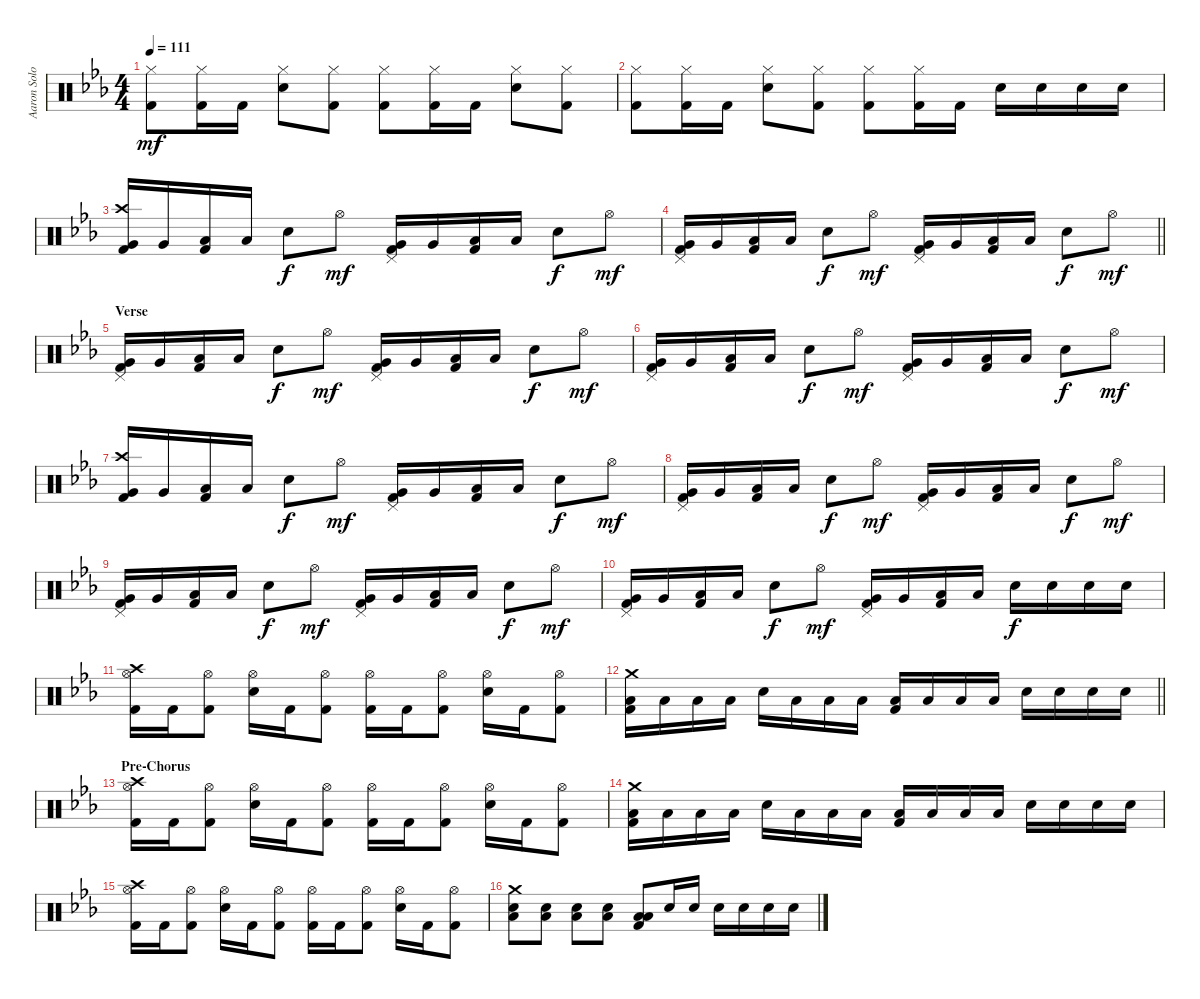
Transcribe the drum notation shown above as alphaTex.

\track ("Aaron Solowoniuk (Drums)" "Aaron Solo") {instrument percussion}
\staff {score}
\articulation defaults
\ts (4 4)
\tempo 111
\clef neutral
\ks cminor
("Hi-Hat (closed)" "Kick (hit) 2").8{dy mf} ("Hi-Hat (closed)" "Kick (hit) 2").16 "Kick (hit) 2".16 ("Hi-Hat (closed)" "Snare (hit) 2").8 ("Hi-Hat (closed)" "Kick (hit) 2").8 ("Hi-Hat (closed)" "Kick (hit) 2").8 ("Hi-Hat (closed)" "Kick (hit) 2").16 "Kick (hit) 2".16 ("Hi-Hat (closed)" "Snare (hit) 2").8 ("Hi-Hat (closed)" "Kick (hit) 2").8 |
("Hi-Hat (closed)" "Kick (hit) 2").8 ("Hi-Hat (closed)" "Kick (hit) 2").16 "Kick (hit) 2".16 ("Hi-Hat (closed)" "Snare (hit) 2").8 ("Hi-Hat (closed)" "Kick (hit) 2").8 ("Hi-Hat (closed)" "Kick (hit) 2").8 ("Hi-Hat (closed)" "Kick (hit) 2").16 "Kick (hit) 2".16 "Snare (hit) 2".16 "Snare (hit) 2".16 "Snare (hit) 2".16 "Snare (hit) 2".16 |
("Crash high (hit)" "Very Low Tom (hit)" "Kick (hit) 2").16 "Very Low Tom (hit)".16 ("Low Floor Tom (hit)" "Kick (hit) 2").16 "Low Floor Tom (hit)".16 "Snare (hit) 2".8{dy f} "Hi-Hat (open)".8{dy mf} ("Pedal Hi-Hat (hit)" "Very Low Tom (hit)" "Kick (hit) 2").16 "Very Low Tom (hit)".16 ("Low Floor Tom (hit)" "Kick (hit) 2").16 "Low Floor Tom (hit)".16 "Snare (hit) 2".8{dy f} "Hi-Hat (open)".8{dy mf} |
\barLineRight lightlight
("Pedal Hi-Hat (hit)" "Very Low Tom (hit)" "Kick (hit) 2").16 "Very Low Tom (hit)".16 ("Low Floor Tom (hit)" "Kick (hit) 2").16 "Low Floor Tom (hit)".16 "Snare (hit) 2".8{dy f} "Hi-Hat (open)".8{dy mf} ("Pedal Hi-Hat (hit)" "Very Low Tom (hit)" "Kick (hit) 2").16 "Very Low Tom (hit)".16 ("Low Floor Tom (hit)" "Kick (hit) 2").16 "Low Floor Tom (hit)".16 "Snare (hit) 2".8{dy f} "Hi-Hat (open)".8{dy mf} |
\section ("" "Verse ")
("Pedal Hi-Hat (hit)" "Very Low Tom (hit)" "Kick (hit) 2").16 "Very Low Tom (hit)".16 ("Low Floor Tom (hit)" "Kick (hit) 2").16 "Low Floor Tom (hit)".16 "Snare (hit) 2".8{dy f} "Hi-Hat (open)".8{dy mf} ("Pedal Hi-Hat (hit)" "Very Low Tom (hit)" "Kick (hit) 2").16 "Very Low Tom (hit)".16 ("Low Floor Tom (hit)" "Kick (hit) 2").16 "Low Floor Tom (hit)".16 "Snare (hit) 2".8{dy f} "Hi-Hat (open)".8{dy mf} |
("Pedal Hi-Hat (hit)" "Very Low Tom (hit)" "Kick (hit) 2").16 "Very Low Tom (hit)".16 ("Low Floor Tom (hit)" "Kick (hit) 2").16 "Low Floor Tom (hit)".16 "Snare (hit) 2".8{dy f} "Hi-Hat (open)".8{dy mf} ("Pedal Hi-Hat (hit)" "Very Low Tom (hit)" "Kick (hit) 2").16 "Very Low Tom (hit)".16 ("Low Floor Tom (hit)" "Kick (hit) 2").16 "Low Floor Tom (hit)".16 "Snare (hit) 2".8{dy f} "Hi-Hat (open)".8{dy mf} |
("Crash high (hit)" "Very Low Tom (hit)" "Kick (hit) 2").16 "Very Low Tom (hit)".16 ("Low Floor Tom (hit)" "Kick (hit) 2").16 "Low Floor Tom (hit)".16 "Snare (hit) 2".8{dy f} "Hi-Hat (open)".8{dy mf} ("Pedal Hi-Hat (hit)" "Very Low Tom (hit)" "Kick (hit) 2").16 "Very Low Tom (hit)".16 ("Low Floor Tom (hit)" "Kick (hit) 2").16 "Low Floor Tom (hit)".16 "Snare (hit) 2".8{dy f} "Hi-Hat (open)".8{dy mf} |
("Pedal Hi-Hat (hit)" "Very Low Tom (hit)" "Kick (hit) 2").16 "Very Low Tom (hit)".16 ("Low Floor Tom (hit)" "Kick (hit) 2").16 "Low Floor Tom (hit)".16 "Snare (hit) 2".8{dy f} "Hi-Hat (open)".8{dy mf} ("Pedal Hi-Hat (hit)" "Very Low Tom (hit)" "Kick (hit) 2").16 "Very Low Tom (hit)".16 ("Low Floor Tom (hit)" "Kick (hit) 2").16 "Low Floor Tom (hit)".16 "Snare (hit) 2".8{dy f} "Hi-Hat (open)".8{dy mf} |
("Pedal Hi-Hat (hit)" "Very Low Tom (hit)" "Kick (hit) 2").16 "Very Low Tom (hit)".16 ("Low Floor Tom (hit)" "Kick (hit) 2").16 "Low Floor Tom (hit)".16 "Snare (hit) 2".8{dy f} "Hi-Hat (open)".8{dy mf} ("Pedal Hi-Hat (hit)" "Very Low Tom (hit)" "Kick (hit) 2").16 "Very Low Tom (hit)".16 ("Low Floor Tom (hit)" "Kick (hit) 2").16 "Low Floor Tom (hit)".16 "Snare (hit) 2".8{dy f} "Hi-Hat (open)".8{dy mf} |
("Pedal Hi-Hat (hit)" "Very Low Tom (hit)" "Kick (hit) 2").16 "Very Low Tom (hit)".16 ("Low Floor Tom (hit)" "Kick (hit) 2").16 "Low Floor Tom (hit)".16 "Snare (hit) 2".8{dy f} "Hi-Hat (open)".8{dy mf} ("Pedal Hi-Hat (hit)" "Very Low Tom (hit)" "Kick (hit) 2").16 "Very Low Tom (hit)".16 ("Low Floor Tom (hit)" "Kick (hit) 2").16 "Low Floor Tom (hit)".16 "Snare (hit) 2".16{dy f} "Snare (hit) 2".16 "Snare (hit) 2".16 "Snare (hit) 2".16 |
("Crash high (hit)" "Hi-Hat (open)" "Kick (hit) 2").16 "Kick (hit) 2".16 ("Hi-Hat (open)" "Kick (hit) 2").8 ("Hi-Hat (open)" "Snare (hit) 2").16 "Kick (hit) 2".16 ("Hi-Hat (open)" "Kick (hit) 2").8 ("Hi-Hat (open)" "Kick (hit) 2").16 "Kick (hit) 2".16 ("Hi-Hat (open)" "Kick (hit) 2").8 ("Hi-Hat (open)" "Snare (hit) 2").16 "Kick (hit) 2".16 ("Hi-Hat (open)" "Kick (hit) 2").8 |
\barLineRight lightlight
("Crash medium (hit)" "Low Floor Tom (hit)" "Kick (hit) 2").16 "Low Floor Tom (hit)".16 "Low Floor Tom (hit)".16 "Low Tom (hit)".16 "Snare (hit) 2".16 "Low Floor Tom (hit)".16 "Low Floor Tom (hit)".16 "Low Floor Tom (hit)".16 ("Low Tom (hit)" "Kick (hit) 2").16 "Low Floor Tom (hit)".16 "Low Floor Tom (hit)".16 "Low Floor Tom (hit)".16 "Snare (hit) 2".16 "Snare (hit) 2".16 "Snare (hit) 2".16 "Snare (hit) 2".16 |
\section ("" "Pre-Chorus ")
("Crash high (hit)" "Hi-Hat (open)" "Kick (hit) 2").16 "Kick (hit) 2".16 ("Hi-Hat (open)" "Kick (hit) 2").8 ("Hi-Hat (open)" "Snare (hit) 2").16 "Kick (hit) 2".16 ("Hi-Hat (open)" "Kick (hit) 2").8 ("Hi-Hat (open)" "Kick (hit) 2").16 "Kick (hit) 2".16 ("Hi-Hat (open)" "Kick (hit) 2").8 ("Hi-Hat (open)" "Snare (hit) 2").16 "Kick (hit) 2".16 ("Hi-Hat (open)" "Kick (hit) 2").8 |
("Crash medium (hit)" "Low Floor Tom (hit)" "Kick (hit) 2").16 "Low Floor Tom (hit)".16 "Low Floor Tom (hit)".16 "Low Tom (hit)".16 "Snare (hit) 2".16 "Low Floor Tom (hit)".16 "Low Floor Tom (hit)".16 "Low Floor Tom (hit)".16 ("Low Tom (hit)" "Kick (hit) 2").16 "Low Floor Tom (hit)".16 "Low Floor Tom (hit)".16 "Low Floor Tom (hit)".16 "Snare (hit) 2".16 "Snare (hit) 2".16 "Snare (hit) 2".16 "Snare (hit) 2".16 |
("Crash high (hit)" "Hi-Hat (open)" "Kick (hit) 2").16 "Kick (hit) 2".16 ("Hi-Hat (open)" "Kick (hit) 2").8 ("Hi-Hat (open)" "Snare (hit) 2").16 "Kick (hit) 2".16 ("Hi-Hat (open)" "Kick (hit) 2").8 ("Hi-Hat (open)" "Kick (hit) 2").16 "Kick (hit) 2".16 ("Hi-Hat (open)" "Kick (hit) 2").8 ("Hi-Hat (open)" "Snare (hit) 2").16 "Kick (hit) 2".16 ("Hi-Hat (open)" "Kick (hit) 2").8 |
("Crash medium (hit)" "Low Floor Tom (hit)" "Snare (hit) 2").8 ("Low Floor Tom (hit)" "Snare (hit) 2").8 ("Low Floor Tom (hit)" "Snare (hit) 2").8 ("Low Floor Tom (hit)" "Snare (hit) 2").8 ("Low Floor Tom (hit)" "Low Tom (hit)" "Kick (hit) 2").8 "Snare (hit) 2".16 "Snare (hit) 2".16 "Snare (hit) 2".16 "Snare (hit) 2".16 "Snare (hit) 2".16 "Snare (hit) 2".16
